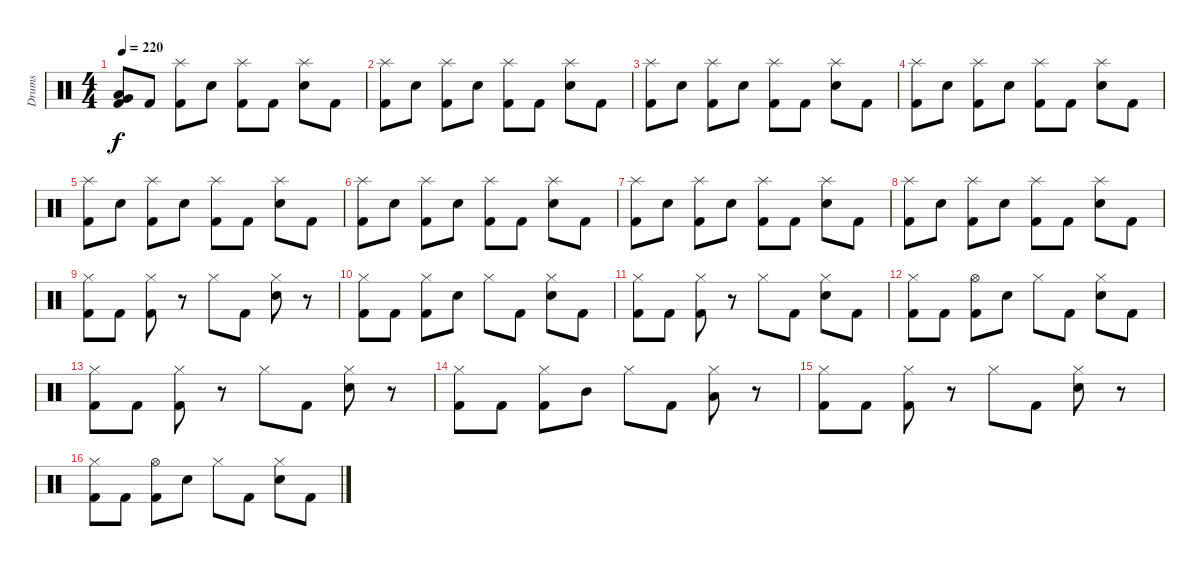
\track ("Drums" "Drums") {instrument percussion}
\staff {score}
\articulation defaults
\ts (4 4)
\tempo 220
\clef neutral
\ks c
("Very Low Tom (hit)" "Low Floor Tom (hit)" "Kick (hit) 2").8{dy f} "Kick (hit) 2".8 ("Splash (hit)" "Kick (hit) 2").8 "Electric Snare (hit)".8 ("Splash (hit)" "Kick (hit) 2").8 "Kick (hit) 2".8 ("Splash (hit)" "Electric Snare (hit)").8 "Kick (hit) 2".8 |
("Splash (hit)" "Kick (hit) 2").8 "Electric Snare (hit)".8 ("Splash (hit)" "Kick (hit) 2").8 "Electric Snare (hit)".8 ("Splash (hit)" "Kick (hit) 2").8 "Kick (hit) 2".8 ("Splash (hit)" "Electric Snare (hit)").8 "Kick (hit) 2".8 |
("Splash (hit)" "Kick (hit) 2").8 "Electric Snare (hit)".8 ("Splash (hit)" "Kick (hit) 2").8 "Electric Snare (hit)".8 ("Splash (hit)" "Kick (hit) 2").8 "Kick (hit) 2".8 ("Splash (hit)" "Electric Snare (hit)").8 "Kick (hit) 2".8 |
("Splash (hit)" "Kick (hit) 2").8 "Electric Snare (hit)".8 ("Splash (hit)" "Kick (hit) 2").8 "Electric Snare (hit)".8 ("Splash (hit)" "Kick (hit) 2").8 "Kick (hit) 2".8 ("Splash (hit)" "Electric Snare (hit)").8 "Kick (hit) 2".8 |
("Splash (hit)" "Kick (hit) 2").8 "Electric Snare (hit)".8 ("Splash (hit)" "Kick (hit) 2").8 "Electric Snare (hit)".8 ("Splash (hit)" "Kick (hit) 2").8 "Kick (hit) 2".8 ("Splash (hit)" "Electric Snare (hit)").8 "Kick (hit) 2".8 |
("Splash (hit)" "Kick (hit) 2").8 "Electric Snare (hit)".8 ("Splash (hit)" "Kick (hit) 2").8 "Electric Snare (hit)".8 ("Splash (hit)" "Kick (hit) 2").8 "Kick (hit) 2".8 ("Splash (hit)" "Electric Snare (hit)").8 "Kick (hit) 2".8 |
("Splash (hit)" "Kick (hit) 2").8 "Electric Snare (hit)".8 ("Splash (hit)" "Kick (hit) 2").8 "Electric Snare (hit)".8 ("Splash (hit)" "Kick (hit) 2").8 "Kick (hit) 2".8 ("Splash (hit)" "Electric Snare (hit)").8 "Kick (hit) 2".8 |
("Splash (hit)" "Kick (hit) 2").8 "Electric Snare (hit)".8 ("Splash (hit)" "Kick (hit) 2").8 "Electric Snare (hit)".8 ("Splash (hit)" "Kick (hit) 2").8 "Kick (hit) 2".8 ("Splash (hit)" "Electric Snare (hit)").8 "Kick (hit) 2".8 |
("Hi-Hat (closed)" "Kick (hit) 2").8 "Kick (hit) 2".8 ("Hi-Hat (closed)" "Kick (hit) 2").8 r.8 "Hi-Hat (closed)".8 "Kick (hit) 2".8 ("Hi-Hat (closed)" "Electric Snare (hit)").8 r.8 |
("Hi-Hat (closed)" "Kick (hit) 2").8 "Kick (hit) 2".8 ("Hi-Hat (closed)" "Kick (hit) 2").8 "Electric Snare (hit)".8 "Hi-Hat (closed)".8 "Kick (hit) 2".8 ("Hi-Hat (closed)" "Electric Snare (hit)").8 "Kick (hit) 2".8 |
("Hi-Hat (closed)" "Kick (hit) 2").8 "Kick (hit) 2".8 ("Hi-Hat (closed)" "Kick (hit) 2").8 r.8 "Hi-Hat (closed)".8 "Kick (hit) 2".8 ("Hi-Hat (closed)" "Electric Snare (hit)").8 "Kick (hit) 2".8 |
("Hi-Hat (closed)" "Kick (hit) 2").8 "Kick (hit) 2".8 ("Hi-Hat (open)" "Kick (hit) 2").8 "Electric Snare (hit)".8 "Hi-Hat (closed)".8 "Kick (hit) 2".8 ("Hi-Hat (closed)" "Electric Snare (hit)").8 "Kick (hit) 2".8 |
("Hi-Hat (closed)" "Kick (hit) 2").8 "Kick (hit) 2".8 ("Hi-Hat (closed)" "Kick (hit) 2").8 r.8 "Hi-Hat (closed)".8 "Kick (hit) 2".8 ("Hi-Hat (closed)" "Electric Snare (hit)").8 r.8 |
("Hi-Hat (closed)" "Kick (hit) 2").8 "Kick (hit) 2".8 ("Hi-Hat (closed)" "Kick (hit) 2").8 "Mid Tom (hit)".8 "Hi-Hat (closed)".8 "Kick (hit) 2".8 ("Hi-Hat (closed)" "Low Tom (hit)").8 r.8 |
("Hi-Hat (closed)" "Kick (hit) 2").8 "Kick (hit) 2".8 ("Hi-Hat (closed)" "Kick (hit) 2").8 r.8 "Hi-Hat (closed)".8 "Kick (hit) 2".8 ("Hi-Hat (closed)" "Electric Snare (hit)").8 r.8 |
("Hi-Hat (closed)" "Kick (hit) 2").8 "Kick (hit) 2".8 ("Hi-Hat (open)" "Kick (hit) 2").8 "Electric Snare (hit)".8 "Hi-Hat (closed)".8 "Kick (hit) 2".8 ("Hi-Hat (closed)" "Electric Snare (hit)").8 "Kick (hit) 2".8
